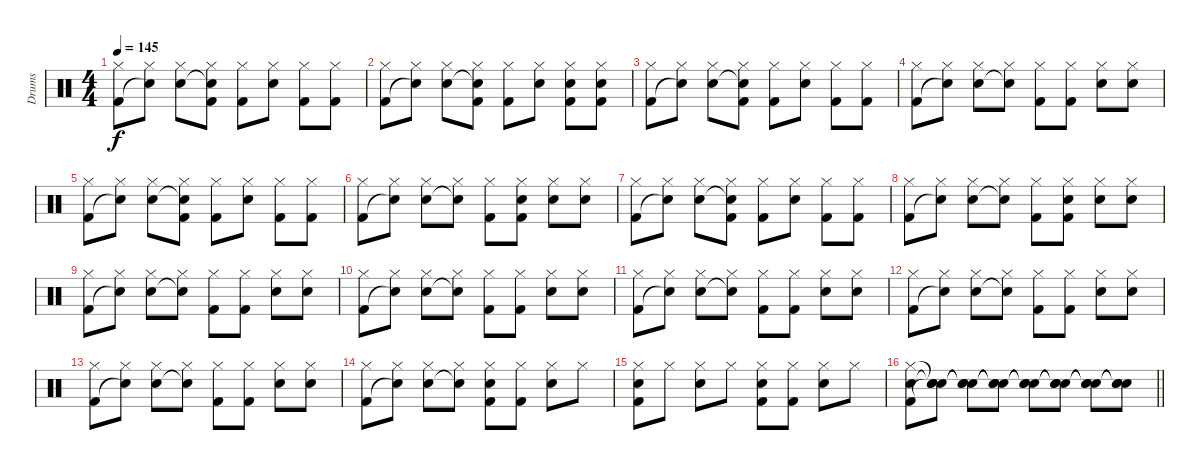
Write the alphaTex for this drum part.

\track ("Drums" "Drums") {instrument percussion}
\staff {score}
\articulation defaults
\ts (4 4)
\tempo 145
\clef neutral
\ks c
("Hi-Hat (closed)" "Kick (hit) 2").8{dy f} ("Hi-Hat (closed)" "Snare (hit)"{t}).8 ("Hi-Hat (closed)" "Electric Snare (hit)").8 ("Hi-Hat (closed)" "Snare (hit)"{t} "Kick (hit) 2").8 ("Hi-Hat (closed)" "Kick (hit) 2").8 ("Hi-Hat (closed)" "Electric Snare (hit)").8 ("Hi-Hat (closed)" "Kick (hit) 2").8 ("Hi-Hat (closed)" "Kick (hit) 2").8 |
("Hi-Hat (closed)" "Kick (hit) 2").8 ("Hi-Hat (closed)" "Snare (hit)"{t}).8 ("Hi-Hat (closed)" "Electric Snare (hit)").8 ("Hi-Hat (closed)" "Snare (hit)"{t} "Kick (hit) 2").8 ("Hi-Hat (closed)" "Kick (hit) 2").8 ("Hi-Hat (closed)" "Electric Snare (hit)").8 ("Hi-Hat (closed)" "Electric Snare (hit)" "Kick (hit) 2").8 ("Hi-Hat (closed)" "Electric Snare (hit)" "Kick (hit) 2").8 |
("Hi-Hat (closed)" "Kick (hit) 2").8 ("Hi-Hat (closed)" "Snare (hit)"{t}).8 ("Hi-Hat (closed)" "Electric Snare (hit)").8 ("Hi-Hat (closed)" "Snare (hit)"{t} "Kick (hit) 2").8 ("Hi-Hat (closed)" "Kick (hit) 2").8 ("Hi-Hat (closed)" "Electric Snare (hit)").8 ("Hi-Hat (closed)" "Kick (hit) 2").8 ("Hi-Hat (closed)" "Kick (hit) 2").8 |
("Hi-Hat (closed)" "Kick (hit) 2").8 ("Hi-Hat (closed)" "Snare (hit)"{t}).8 ("Hi-Hat (closed)" "Electric Snare (hit)").8 ("Hi-Hat (closed)" "Snare (hit)"{t}).8 ("Hi-Hat (closed)" "Kick (hit) 2").8 ("Hi-Hat (closed)" "Kick (hit) 2").8 ("Hi-Hat (closed)" "Electric Snare (hit)").8 ("Hi-Hat (closed)" "Electric Snare (hit)").8 |
("Hi-Hat (closed)" "Kick (hit) 2").8 ("Hi-Hat (closed)" "Snare (hit)"{t}).8 ("Hi-Hat (closed)" "Electric Snare (hit)").8 ("Hi-Hat (closed)" "Snare (hit)"{t} "Kick (hit) 2").8 ("Hi-Hat (closed)" "Kick (hit) 2").8 ("Hi-Hat (closed)" "Electric Snare (hit)").8 ("Hi-Hat (closed)" "Kick (hit) 2").8 ("Hi-Hat (closed)" "Kick (hit) 2").8 |
("Hi-Hat (closed)" "Kick (hit) 2").8 ("Hi-Hat (closed)" "Snare (hit)"{t}).8 ("Hi-Hat (closed)" "Electric Snare (hit)").8 ("Hi-Hat (closed)" "Snare (hit)"{t}).8 ("Hi-Hat (closed)" "Kick (hit) 2").8 ("Hi-Hat (closed)" "Electric Snare (hit)" "Kick (hit) 2").8 ("Hi-Hat (closed)" "Electric Snare (hit)").8 ("Hi-Hat (closed)" "Electric Snare (hit)").8 |
("Hi-Hat (closed)" "Kick (hit) 2").8 ("Hi-Hat (closed)" "Snare (hit)"{t}).8 ("Hi-Hat (closed)" "Electric Snare (hit)").8 ("Hi-Hat (closed)" "Snare (hit)"{t} "Kick (hit) 2").8 ("Hi-Hat (closed)" "Kick (hit) 2").8 ("Hi-Hat (closed)" "Electric Snare (hit)").8 ("Hi-Hat (closed)" "Kick (hit) 2").8 ("Hi-Hat (closed)" "Kick (hit) 2").8 |
("Hi-Hat (closed)" "Kick (hit) 2").8 ("Hi-Hat (closed)" "Snare (hit)"{t}).8 ("Hi-Hat (closed)" "Electric Snare (hit)").8 ("Hi-Hat (closed)" "Snare (hit)"{t}).8 ("Hi-Hat (closed)" "Kick (hit) 2").8 ("Hi-Hat (closed)" "Electric Snare (hit)" "Kick (hit) 2").8 ("Hi-Hat (closed)" "Electric Snare (hit)").8 ("Hi-Hat (closed)" "Electric Snare (hit)").8 |
("Hi-Hat (closed)" "Kick (hit) 2").8 ("Hi-Hat (closed)" "Snare (hit)"{t}).8 ("Hi-Hat (closed)" "Electric Snare (hit)").8 ("Hi-Hat (closed)" "Snare (hit)"{t}).8 ("Hi-Hat (closed)" "Kick (hit) 2").8 ("Hi-Hat (closed)" "Kick (hit) 2").8 ("Hi-Hat (closed)" "Electric Snare (hit)").8 ("Hi-Hat (closed)" "Electric Snare (hit)").8 |
("Hi-Hat (closed)" "Kick (hit) 2").8 ("Hi-Hat (closed)" "Snare (hit)"{t}).8 ("Hi-Hat (closed)" "Electric Snare (hit)").8 ("Hi-Hat (closed)" "Snare (hit)"{t}).8 ("Hi-Hat (closed)" "Kick (hit) 2").8 ("Hi-Hat (closed)" "Kick (hit) 2").8 ("Hi-Hat (closed)" "Electric Snare (hit)").8 ("Hi-Hat (closed)" "Electric Snare (hit)").8 |
("Hi-Hat (closed)" "Kick (hit) 2").8 ("Hi-Hat (closed)" "Snare (hit)"{t}).8 ("Hi-Hat (closed)" "Electric Snare (hit)").8 ("Hi-Hat (closed)" "Snare (hit)"{t}).8 ("Hi-Hat (closed)" "Kick (hit) 2").8 ("Hi-Hat (closed)" "Kick (hit) 2").8 ("Hi-Hat (closed)" "Electric Snare (hit)").8 ("Hi-Hat (closed)" "Electric Snare (hit)").8 |
("Hi-Hat (closed)" "Kick (hit) 2").8 ("Hi-Hat (closed)" "Snare (hit)"{t}).8 ("Hi-Hat (closed)" "Electric Snare (hit)").8 ("Hi-Hat (closed)" "Snare (hit)"{t}).8 ("Hi-Hat (closed)" "Kick (hit) 2").8 ("Hi-Hat (closed)" "Kick (hit) 2").8 ("Hi-Hat (closed)" "Electric Snare (hit)").8 ("Hi-Hat (closed)" "Electric Snare (hit)").8 |
("Hi-Hat (closed)" "Kick (hit) 2").8 ("Hi-Hat (closed)" "Snare (hit)"{t}).8 ("Hi-Hat (closed)" "Electric Snare (hit)").8 ("Hi-Hat (closed)" "Snare (hit)"{t}).8 ("Hi-Hat (closed)" "Kick (hit) 2").8 ("Hi-Hat (closed)" "Kick (hit) 2").8 ("Hi-Hat (closed)" "Electric Snare (hit)").8 ("Hi-Hat (closed)" "Electric Snare (hit)").8 |
("Hi-Hat (closed)" "Kick (hit) 2").8 ("Hi-Hat (closed)" "Snare (hit)"{t}).8 ("Hi-Hat (closed)" "Electric Snare (hit)").8 ("Hi-Hat (closed)" "Snare (hit)"{t}).8 ("Hi-Hat (closed)" "Electric Snare (hit)" "Kick (hit) 2").8 ("Hi-Hat (closed)" "Kick (hit) 2").8 ("Hi-Hat (closed)" "Electric Snare (hit)").8 "Hi-Hat (closed)".8 |
("Hi-Hat (closed)" "Electric Snare (hit)" "Kick (hit) 2").8 "Hi-Hat (closed)".8 ("Hi-Hat (closed)" "Electric Snare (hit)").8 "Hi-Hat (closed)".8 ("Hi-Hat (closed)" "Electric Snare (hit)" "Kick (hit) 2").8 ("Hi-Hat (closed)" "Kick (hit) 2").8 ("Hi-Hat (closed)" "Electric Snare (hit)").8 "Hi-Hat (closed)".8 |
\barLineRight lightlight
("Hi-Hat (closed)" "Electric Snare (hit)" "Kick (hit) 2").8 ("Snare (hit)"{t} "Snare (hit)"{t} "Snare (hit)"{t}).8 ("Snare (hit)"{t} "Snare (hit)"{t} "Snare (hit)"{t}).8 ("Snare (hit)"{t} "Snare (hit)"{t} "Snare (hit)"{t}).8 ("Snare (hit)"{t} "Snare (hit)"{t} "Snare (hit)"{t}).8 ("Snare (hit)"{t} "Snare (hit)"{t} "Snare (hit)"{t}).8 ("Snare (hit)"{t} "Snare (hit)"{t} "Snare (hit)"{t}).8 ("Snare (hit)"{t} "Snare (hit)"{t} "Snare (hit)"{t}).8
